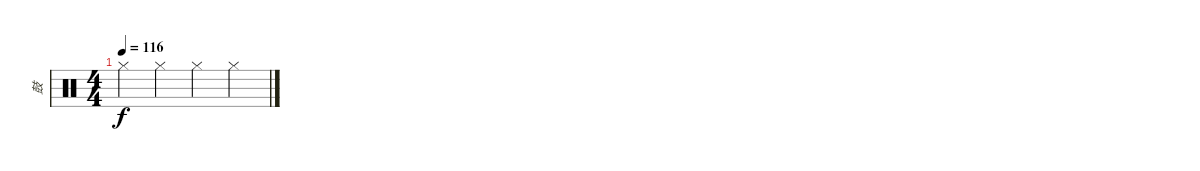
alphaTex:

\track ("鼓" "鼓") {instrument percussion}
\staff {score}
\articulation defaults
\ts (4 4)
\tempo 116
\clef neutral
\ks c "Hi-Hat (closed)".4{dy f} "Hi-Hat (closed)".4 "Hi-Hat (closed)".4 "Hi-Hat (closed)".4
